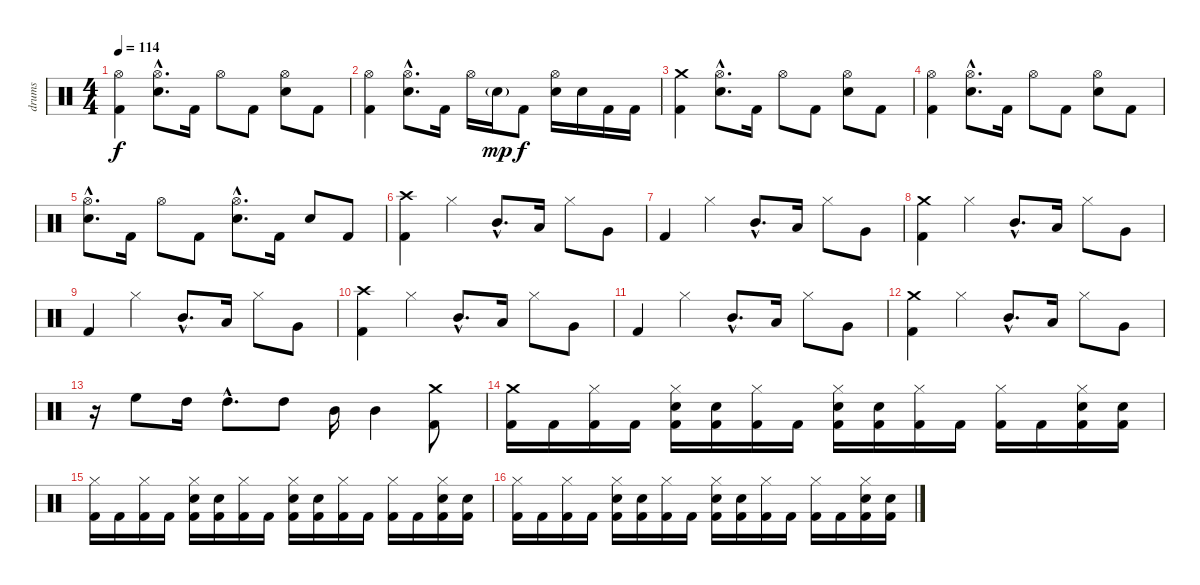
\track ("drums" "drums") {instrument percussion}
\staff {score}
\articulation defaults
\ts (4 4)
\tempo 114
\clef neutral
\ks c
("Hi-Hat (open)" "Kick (hit) 2").4{dy f} ("Hi-Hat (open)"{hac} "Electric Snare (hit)"{hac}).8{d} "Kick (hit) 2".16 "Hi-Hat (open)".8 "Kick (hit) 2".8 ("Hi-Hat (open)" "Electric Snare (hit)").8 "Kick (hit) 2".8 |
("Hi-Hat (open)" "Kick (hit) 2").4 ("Hi-Hat (open)"{hac} "Electric Snare (hit)"{hac}).8{d} "Kick (hit) 2".16 "Hi-Hat (open)".16 "Electric Snare (hit)"{g}.16{dy mp} "Kick (hit) 2".8{dy f} ("Hi-Hat (open)" "Electric Snare (hit)").16 "Electric Snare (hit)".16 "Kick (hit) 2".16 "Kick (hit) 2".16 |
("Crash medium (hit)" "Kick (hit) 2").4 ("Hi-Hat (open)"{hac} "Electric Snare (hit)"{hac}).8{d} "Kick (hit) 2".16 "Hi-Hat (open)".8 "Kick (hit) 2".8 ("Hi-Hat (open)" "Electric Snare (hit)").8 "Kick (hit) 2".8 |
("Hi-Hat (open)" "Kick (hit) 2").4 ("Hi-Hat (open)"{hac} "Electric Snare (hit)"{hac}).8{d} "Kick (hit) 2".16 "Hi-Hat (open)".8 "Kick (hit) 2".8 ("Hi-Hat (open)" "Electric Snare (hit)").8 "Kick (hit) 2".8 |
("Hi-Hat (open)"{hac} "Electric Snare (hit)"{hac}).8{d} "Kick (hit) 2".16 "Hi-Hat (open)".8 "Kick (hit) 2".8 ("Hi-Hat (open)"{hac} "Electric Snare (hit)"{hac}).8{d} "Kick (hit) 2".16 "Electric Snare (hit)".8 "Kick (hit) 2".8 |
("Crash high (hit)" "Kick (hit) 2").4 "Hi-Hat (closed)".4 "Mid Tom (hit)"{hac}.8{d} "Low Tom (hit)".16 "Hi-Hat (closed)".8 "Very Low Tom (hit)".8 |
"Kick (hit) 2".4 "Hi-Hat (closed)".4 "Mid Tom (hit)"{hac}.8{d} "Low Tom (hit)".16 "Hi-Hat (closed)".8 "Very Low Tom (hit)".8 |
("Crash medium (hit)" "Kick (hit) 2").4 "Hi-Hat (closed)".4 "Mid Tom (hit)"{hac}.8{d} "Low Tom (hit)".16 "Hi-Hat (closed)".8 "Very Low Tom (hit)".8 |
"Kick (hit) 2".4 "Hi-Hat (closed)".4 "Mid Tom (hit)"{hac}.8{d} "Low Tom (hit)".16 "Hi-Hat (closed)".8 "Very Low Tom (hit)".8 |
("Crash high (hit)" "Kick (hit) 2").4 "Hi-Hat (closed)".4 "Mid Tom (hit)"{hac}.8{d} "Low Tom (hit)".16 "Hi-Hat (closed)".8 "Very Low Tom (hit)".8 |
"Kick (hit) 2".4 "Hi-Hat (closed)".4 "Mid Tom (hit)"{hac}.8{d} "Low Tom (hit)".16 "Hi-Hat (closed)".8 "Very Low Tom (hit)".8 |
("Crash medium (hit)" "Kick (hit) 2").4 "Hi-Hat (closed)".4 "Mid Tom (hit)"{hac}.8{d} "Low Tom (hit)".16 "Hi-Hat (closed)".8 "Very Low Tom (hit)".8 |
r.16 "High Floor Tom (hit)".8 "High Tom (hit)".16 "High Tom (hit)"{hac}.8{d} "High Tom (hit)".8 "Mid Tom (hit)".16 "Mid Tom (hit)".4 ("Crash medium (hit)" "Kick (hit) 2").8 |
("Crash medium (hit)" "Kick (hit) 2").16 "Kick (hit) 2".16 ("Hi-Hat (closed)" "Kick (hit) 2").16 "Kick (hit) 2".16 ("Hi-Hat (closed)" "Electric Snare (hit)" "Kick (hit) 2").16 ("Electric Snare (hit)" "Kick (hit) 2").16 ("Hi-Hat (closed)" "Kick (hit) 2").16 "Kick (hit) 2".16 ("Hi-Hat (closed)" "Electric Snare (hit)" "Kick (hit) 2").16 ("Electric Snare (hit)" "Kick (hit) 2").16 ("Hi-Hat (closed)" "Kick (hit) 2").16 "Kick (hit) 2".16 ("Hi-Hat (closed)" "Kick (hit) 2").16 "Kick (hit) 2".16 ("Hi-Hat (closed)" "Electric Snare (hit)" "Kick (hit) 2").16 ("Electric Snare (hit)" "Kick (hit) 2").16 |
("Hi-Hat (closed)" "Kick (hit) 2").16 "Kick (hit) 2".16 ("Hi-Hat (closed)" "Kick (hit) 2").16 "Kick (hit) 2".16 ("Hi-Hat (closed)" "Electric Snare (hit)" "Kick (hit) 2").16 ("Electric Snare (hit)" "Kick (hit) 2").16 ("Hi-Hat (closed)" "Kick (hit) 2").16 "Kick (hit) 2".16 ("Hi-Hat (closed)" "Electric Snare (hit)" "Kick (hit) 2").16 ("Electric Snare (hit)" "Kick (hit) 2").16 ("Hi-Hat (closed)" "Kick (hit) 2").16 "Kick (hit) 2".16 ("Hi-Hat (closed)" "Kick (hit) 2").16 "Kick (hit) 2".16 ("Hi-Hat (closed)" "Electric Snare (hit)" "Kick (hit) 2").16 ("Electric Snare (hit)" "Kick (hit) 2").16 |
("Hi-Hat (closed)" "Kick (hit) 2").16 "Kick (hit) 2".16 ("Hi-Hat (closed)" "Kick (hit) 2").16 "Kick (hit) 2".16 ("Hi-Hat (closed)" "Electric Snare (hit)" "Kick (hit) 2").16 ("Electric Snare (hit)" "Kick (hit) 2").16 ("Hi-Hat (closed)" "Kick (hit) 2").16 "Kick (hit) 2".16 ("Hi-Hat (closed)" "Electric Snare (hit)" "Kick (hit) 2").16 ("Electric Snare (hit)" "Kick (hit) 2").16 ("Hi-Hat (closed)" "Kick (hit) 2").16 "Kick (hit) 2".16 ("Hi-Hat (closed)" "Kick (hit) 2").16 "Kick (hit) 2".16 ("Hi-Hat (closed)" "Electric Snare (hit)" "Kick (hit) 2").16 ("Electric Snare (hit)" "Kick (hit) 2").16
